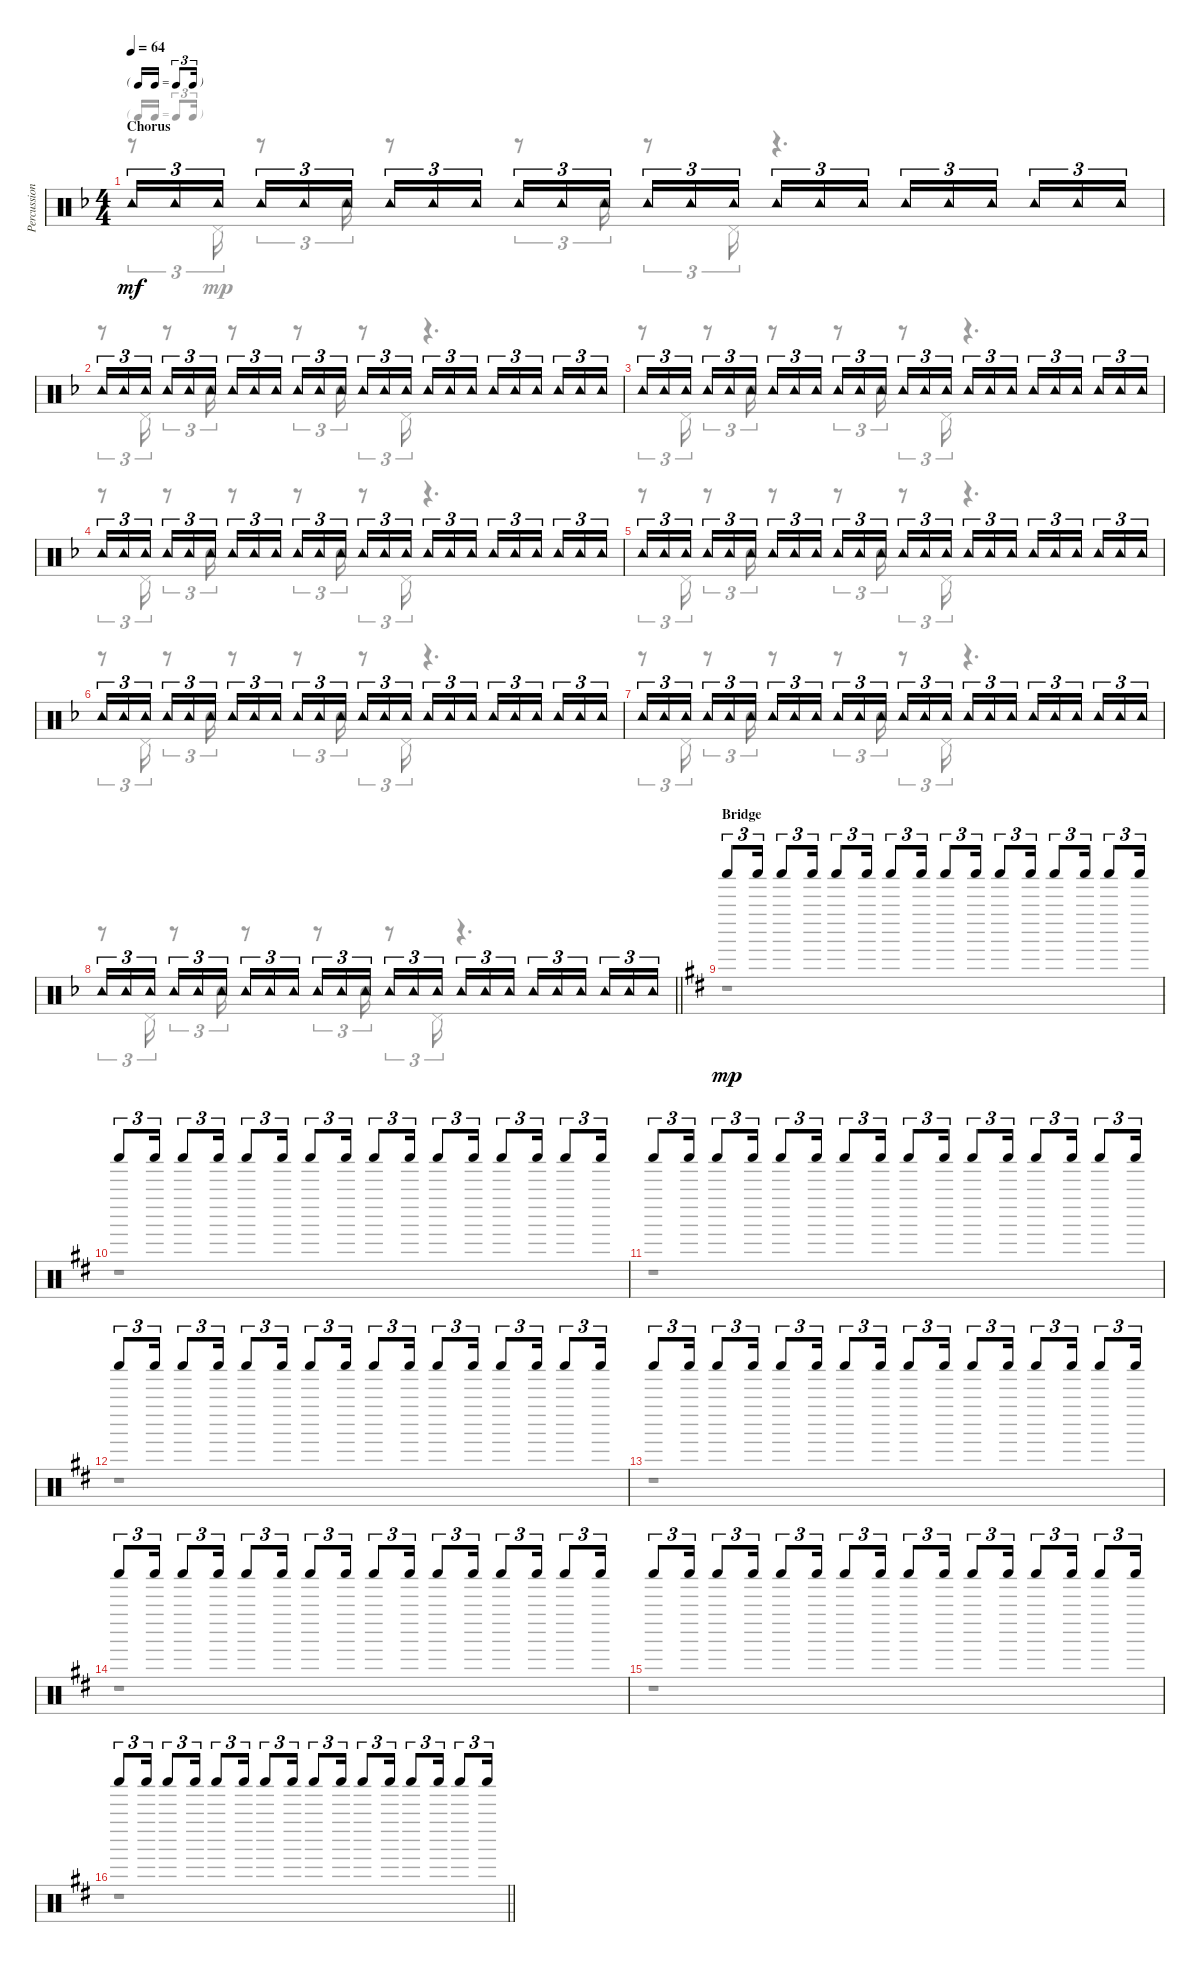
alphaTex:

\track ("Percussion" "Percussion") {instrument percussion}
\staff {score}
\articulation defaults
\voice
\ts (4 4)
\tf triplet16th
\section ("" "Chorus")
\tempo 64
\clef neutral
\ks f "Tambourine (hit)".16{tu (3 2) dy mf} "Tambourine (hit)".16{tu (3 2)} "Tambourine (hit)".16{tu (3 2) beam splitsecondary} "Tambourine (hit)".16{tu (3 2)} "Tambourine (hit)".16{tu (3 2)} "Tambourine (hit)".16{tu (3 2)} "Tambourine (hit)".16{tu (3 2)} "Tambourine (hit)".16{tu (3 2)} "Tambourine (hit)".16{tu (3 2) beam splitsecondary} "Tambourine (hit)".16{tu (3 2)} "Tambourine (hit)".16{tu (3 2)} "Tambourine (hit)".16{tu (3 2)} "Tambourine (hit)".16{tu (3 2)} "Tambourine (hit)".16{tu (3 2)} "Tambourine (hit)".16{tu (3 2) beam splitsecondary} "Tambourine (hit)".16{tu (3 2)} "Tambourine (hit)".16{tu (3 2)} "Tambourine (hit)".16{tu (3 2)} "Tambourine (hit)".16{tu (3 2)} "Tambourine (hit)".16{tu (3 2)} "Tambourine (hit)".16{tu (3 2) beam splitsecondary} "Tambourine (hit)".16{tu (3 2)} "Tambourine (hit)".16{tu (3 2)} "Tambourine (hit)".16{tu (3 2)}
|
"Tambourine (hit)".16{tu (3 2)} "Tambourine (hit)".16{tu (3 2)} "Tambourine (hit)".16{tu (3 2) beam splitsecondary} "Tambourine (hit)".16{tu (3 2)} "Tambourine (hit)".16{tu (3 2)} "Tambourine (hit)".16{tu (3 2)} "Tambourine (hit)".16{tu (3 2)} "Tambourine (hit)".16{tu (3 2)} "Tambourine (hit)".16{tu (3 2) beam splitsecondary} "Tambourine (hit)".16{tu (3 2)} "Tambourine (hit)".16{tu (3 2)} "Tambourine (hit)".16{tu (3 2)} "Tambourine (hit)".16{tu (3 2)} "Tambourine (hit)".16{tu (3 2)} "Tambourine (hit)".16{tu (3 2) beam splitsecondary} "Tambourine (hit)".16{tu (3 2)} "Tambourine (hit)".16{tu (3 2)} "Tambourine (hit)".16{tu (3 2)} "Tambourine (hit)".16{tu (3 2)} "Tambourine (hit)".16{tu (3 2)} "Tambourine (hit)".16{tu (3 2) beam splitsecondary} "Tambourine (hit)".16{tu (3 2)} "Tambourine (hit)".16{tu (3 2)} "Tambourine (hit)".16{tu (3 2)} |
"Tambourine (hit)".16{tu (3 2)} "Tambourine (hit)".16{tu (3 2)} "Tambourine (hit)".16{tu (3 2) beam splitsecondary} "Tambourine (hit)".16{tu (3 2)} "Tambourine (hit)".16{tu (3 2)} "Tambourine (hit)".16{tu (3 2)} "Tambourine (hit)".16{tu (3 2)} "Tambourine (hit)".16{tu (3 2)} "Tambourine (hit)".16{tu (3 2) beam splitsecondary} "Tambourine (hit)".16{tu (3 2)} "Tambourine (hit)".16{tu (3 2)} "Tambourine (hit)".16{tu (3 2)} "Tambourine (hit)".16{tu (3 2)} "Tambourine (hit)".16{tu (3 2)} "Tambourine (hit)".16{tu (3 2) beam splitsecondary} "Tambourine (hit)".16{tu (3 2)} "Tambourine (hit)".16{tu (3 2)} "Tambourine (hit)".16{tu (3 2)} "Tambourine (hit)".16{tu (3 2)} "Tambourine (hit)".16{tu (3 2)} "Tambourine (hit)".16{tu (3 2) beam splitsecondary} "Tambourine (hit)".16{tu (3 2)} "Tambourine (hit)".16{tu (3 2)} "Tambourine (hit)".16{tu (3 2)} |
"Tambourine (hit)".16{tu (3 2)} "Tambourine (hit)".16{tu (3 2)} "Tambourine (hit)".16{tu (3 2) beam splitsecondary} "Tambourine (hit)".16{tu (3 2)} "Tambourine (hit)".16{tu (3 2)} "Tambourine (hit)".16{tu (3 2)} "Tambourine (hit)".16{tu (3 2)} "Tambourine (hit)".16{tu (3 2)} "Tambourine (hit)".16{tu (3 2) beam splitsecondary} "Tambourine (hit)".16{tu (3 2)} "Tambourine (hit)".16{tu (3 2)} "Tambourine (hit)".16{tu (3 2)} "Tambourine (hit)".16{tu (3 2)} "Tambourine (hit)".16{tu (3 2)} "Tambourine (hit)".16{tu (3 2) beam splitsecondary} "Tambourine (hit)".16{tu (3 2)} "Tambourine (hit)".16{tu (3 2)} "Tambourine (hit)".16{tu (3 2)} "Tambourine (hit)".16{tu (3 2)} "Tambourine (hit)".16{tu (3 2)} "Tambourine (hit)".16{tu (3 2) beam splitsecondary} "Tambourine (hit)".16{tu (3 2)} "Tambourine (hit)".16{tu (3 2)} "Tambourine (hit)".16{tu (3 2)} |
"Tambourine (hit)".16{tu (3 2)} "Tambourine (hit)".16{tu (3 2)} "Tambourine (hit)".16{tu (3 2) beam splitsecondary} "Tambourine (hit)".16{tu (3 2)} "Tambourine (hit)".16{tu (3 2)} "Tambourine (hit)".16{tu (3 2)} "Tambourine (hit)".16{tu (3 2)} "Tambourine (hit)".16{tu (3 2)} "Tambourine (hit)".16{tu (3 2) beam splitsecondary} "Tambourine (hit)".16{tu (3 2)} "Tambourine (hit)".16{tu (3 2)} "Tambourine (hit)".16{tu (3 2)} "Tambourine (hit)".16{tu (3 2)} "Tambourine (hit)".16{tu (3 2)} "Tambourine (hit)".16{tu (3 2) beam splitsecondary} "Tambourine (hit)".16{tu (3 2)} "Tambourine (hit)".16{tu (3 2)} "Tambourine (hit)".16{tu (3 2)} "Tambourine (hit)".16{tu (3 2)} "Tambourine (hit)".16{tu (3 2)} "Tambourine (hit)".16{tu (3 2) beam splitsecondary} "Tambourine (hit)".16{tu (3 2)} "Tambourine (hit)".16{tu (3 2)} "Tambourine (hit)".16{tu (3 2)} |
"Tambourine (hit)".16{tu (3 2)} "Tambourine (hit)".16{tu (3 2)} "Tambourine (hit)".16{tu (3 2) beam splitsecondary} "Tambourine (hit)".16{tu (3 2)} "Tambourine (hit)".16{tu (3 2)} "Tambourine (hit)".16{tu (3 2)} "Tambourine (hit)".16{tu (3 2)} "Tambourine (hit)".16{tu (3 2)} "Tambourine (hit)".16{tu (3 2) beam splitsecondary} "Tambourine (hit)".16{tu (3 2)} "Tambourine (hit)".16{tu (3 2)} "Tambourine (hit)".16{tu (3 2)} "Tambourine (hit)".16{tu (3 2)} "Tambourine (hit)".16{tu (3 2)} "Tambourine (hit)".16{tu (3 2) beam splitsecondary} "Tambourine (hit)".16{tu (3 2)} "Tambourine (hit)".16{tu (3 2)} "Tambourine (hit)".16{tu (3 2)} "Tambourine (hit)".16{tu (3 2)} "Tambourine (hit)".16{tu (3 2)} "Tambourine (hit)".16{tu (3 2) beam splitsecondary} "Tambourine (hit)".16{tu (3 2)} "Tambourine (hit)".16{tu (3 2)} "Tambourine (hit)".16{tu (3 2)} |
"Tambourine (hit)".16{tu (3 2)} "Tambourine (hit)".16{tu (3 2)} "Tambourine (hit)".16{tu (3 2) beam splitsecondary} "Tambourine (hit)".16{tu (3 2)} "Tambourine (hit)".16{tu (3 2)} "Tambourine (hit)".16{tu (3 2)} "Tambourine (hit)".16{tu (3 2)} "Tambourine (hit)".16{tu (3 2)} "Tambourine (hit)".16{tu (3 2) beam splitsecondary} "Tambourine (hit)".16{tu (3 2)} "Tambourine (hit)".16{tu (3 2)} "Tambourine (hit)".16{tu (3 2)} "Tambourine (hit)".16{tu (3 2)} "Tambourine (hit)".16{tu (3 2)} "Tambourine (hit)".16{tu (3 2) beam splitsecondary} "Tambourine (hit)".16{tu (3 2)} "Tambourine (hit)".16{tu (3 2)} "Tambourine (hit)".16{tu (3 2)} "Tambourine (hit)".16{tu (3 2)} "Tambourine (hit)".16{tu (3 2)} "Tambourine (hit)".16{tu (3 2) beam splitsecondary} "Tambourine (hit)".16{tu (3 2)} "Tambourine (hit)".16{tu (3 2)} "Tambourine (hit)".16{tu (3 2)} |
\barLineRight lightlight "Tambourine (hit)".16{tu (3 2)} "Tambourine (hit)".16{tu (3 2)} "Tambourine (hit)".16{tu (3 2) beam splitsecondary} "Tambourine (hit)".16{tu (3 2)} "Tambourine (hit)".16{tu (3 2)} "Tambourine (hit)".16{tu (3 2)} "Tambourine (hit)".16{tu (3 2)} "Tambourine (hit)".16{tu (3 2)} "Tambourine (hit)".16{tu (3 2) beam splitsecondary} "Tambourine (hit)".16{tu (3 2)} "Tambourine (hit)".16{tu (3 2)} "Tambourine (hit)".16{tu (3 2)} "Tambourine (hit)".16{tu (3 2)} "Tambourine (hit)".16{tu (3 2)} "Tambourine (hit)".16{tu (3 2) beam splitsecondary} "Tambourine (hit)".16{tu (3 2)} "Tambourine (hit)".16{tu (3 2)} "Tambourine (hit)".16{tu (3 2)} "Tambourine (hit)".16{tu (3 2)} "Tambourine (hit)".16{tu (3 2)} "Tambourine (hit)".16{tu (3 2) beam splitsecondary} "Tambourine (hit)".16{tu (3 2)} "Tambourine (hit)".16{tu (3 2)} "Tambourine (hit)".16{tu (3 2)}
|
\section ("" "Bridge")
\ks d "Shaker (hit)".8{tu (3 2) dy mp} "Shaker (hit)".16{tu (3 2)} "Shaker (hit)".8{tu (3 2)} "Shaker (hit)".16{tu (3 2)} "Shaker (hit)".8{tu (3 2)} "Shaker (hit)".16{tu (3 2)} "Shaker (hit)".8{tu (3 2)} "Shaker (hit)".16{tu (3 2)} "Shaker (hit)".8{tu (3 2)} "Shaker (hit)".16{tu (3 2)} "Shaker (hit)".8{tu (3 2)} "Shaker (hit)".16{tu (3 2)} "Shaker (hit)".8{tu (3 2)} "Shaker (hit)".16{tu (3 2)} "Shaker (hit)".8{tu (3 2)} "Shaker (hit)".16{tu (3 2)}
|
"Shaker (hit)".8{tu (3 2)} "Shaker (hit)".16{tu (3 2)} "Shaker (hit)".8{tu (3 2)} "Shaker (hit)".16{tu (3 2)} "Shaker (hit)".8{tu (3 2)} "Shaker (hit)".16{tu (3 2)} "Shaker (hit)".8{tu (3 2)} "Shaker (hit)".16{tu (3 2)} "Shaker (hit)".8{tu (3 2)} "Shaker (hit)".16{tu (3 2)} "Shaker (hit)".8{tu (3 2)} "Shaker (hit)".16{tu (3 2)} "Shaker (hit)".8{tu (3 2)} "Shaker (hit)".16{tu (3 2)} "Shaker (hit)".8{tu (3 2)} "Shaker (hit)".16{tu (3 2)} |
"Shaker (hit)".8{tu (3 2)} "Shaker (hit)".16{tu (3 2)} "Shaker (hit)".8{tu (3 2)} "Shaker (hit)".16{tu (3 2)} "Shaker (hit)".8{tu (3 2)} "Shaker (hit)".16{tu (3 2)} "Shaker (hit)".8{tu (3 2)} "Shaker (hit)".16{tu (3 2)} "Shaker (hit)".8{tu (3 2)} "Shaker (hit)".16{tu (3 2)} "Shaker (hit)".8{tu (3 2)} "Shaker (hit)".16{tu (3 2)} "Shaker (hit)".8{tu (3 2)} "Shaker (hit)".16{tu (3 2)} "Shaker (hit)".8{tu (3 2)} "Shaker (hit)".16{tu (3 2)} |
"Shaker (hit)".8{tu (3 2)} "Shaker (hit)".16{tu (3 2)} "Shaker (hit)".8{tu (3 2)} "Shaker (hit)".16{tu (3 2)} "Shaker (hit)".8{tu (3 2)} "Shaker (hit)".16{tu (3 2)} "Shaker (hit)".8{tu (3 2)} "Shaker (hit)".16{tu (3 2)} "Shaker (hit)".8{tu (3 2)} "Shaker (hit)".16{tu (3 2)} "Shaker (hit)".8{tu (3 2)} "Shaker (hit)".16{tu (3 2)} "Shaker (hit)".8{tu (3 2)} "Shaker (hit)".16{tu (3 2)} "Shaker (hit)".8{tu (3 2)} "Shaker (hit)".16{tu (3 2)} |
"Shaker (hit)".8{tu (3 2)} "Shaker (hit)".16{tu (3 2)} "Shaker (hit)".8{tu (3 2)} "Shaker (hit)".16{tu (3 2)} "Shaker (hit)".8{tu (3 2)} "Shaker (hit)".16{tu (3 2)} "Shaker (hit)".8{tu (3 2)} "Shaker (hit)".16{tu (3 2)} "Shaker (hit)".8{tu (3 2)} "Shaker (hit)".16{tu (3 2)} "Shaker (hit)".8{tu (3 2)} "Shaker (hit)".16{tu (3 2)} "Shaker (hit)".8{tu (3 2)} "Shaker (hit)".16{tu (3 2)} "Shaker (hit)".8{tu (3 2)} "Shaker (hit)".16{tu (3 2)} |
"Shaker (hit)".8{tu (3 2)} "Shaker (hit)".16{tu (3 2)} "Shaker (hit)".8{tu (3 2)} "Shaker (hit)".16{tu (3 2)} "Shaker (hit)".8{tu (3 2)} "Shaker (hit)".16{tu (3 2)} "Shaker (hit)".8{tu (3 2)} "Shaker (hit)".16{tu (3 2)} "Shaker (hit)".8{tu (3 2)} "Shaker (hit)".16{tu (3 2)} "Shaker (hit)".8{tu (3 2)} "Shaker (hit)".16{tu (3 2)} "Shaker (hit)".8{tu (3 2)} "Shaker (hit)".16{tu (3 2)} "Shaker (hit)".8{tu (3 2)} "Shaker (hit)".16{tu (3 2)} |
"Shaker (hit)".8{tu (3 2)} "Shaker (hit)".16{tu (3 2)} "Shaker (hit)".8{tu (3 2)} "Shaker (hit)".16{tu (3 2)} "Shaker (hit)".8{tu (3 2)} "Shaker (hit)".16{tu (3 2)} "Shaker (hit)".8{tu (3 2)} "Shaker (hit)".16{tu (3 2)} "Shaker (hit)".8{tu (3 2)} "Shaker (hit)".16{tu (3 2)} "Shaker (hit)".8{tu (3 2)} "Shaker (hit)".16{tu (3 2)} "Shaker (hit)".8{tu (3 2)} "Shaker (hit)".16{tu (3 2)} "Shaker (hit)".8{tu (3 2)} "Shaker (hit)".16{tu (3 2)} |
\barLineRight lightlight "Shaker (hit)".8{tu (3 2)} "Shaker (hit)".16{tu (3 2)} "Shaker (hit)".8{tu (3 2)} "Shaker (hit)".16{tu (3 2)} "Shaker (hit)".8{tu (3 2)} "Shaker (hit)".16{tu (3 2)} "Shaker (hit)".8{tu (3 2)} "Shaker (hit)".16{tu (3 2)} "Shaker (hit)".8{tu (3 2)} "Shaker (hit)".16{tu (3 2)} "Shaker (hit)".8{tu (3 2)} "Shaker (hit)".16{tu (3 2)} "Shaker (hit)".8{tu (3 2)} "Shaker (hit)".16{tu (3 2)} "Shaker (hit)".8{tu (3 2)} "Shaker (hit)".16{tu (3 2)}
\voice
\clef neutral
\ottava regular
\simile none
\ks f
r.8{tu (3 2) dy mp} "Pedal Hi-Hat (hit)".16{tu (3 2)} r.8{tu (3 2)} "Electric Snare (hit)".16{tu (3 2)} r.8 r.8{tu (3 2)} "Electric Snare (hit)".16{tu (3 2)} r.8{tu (3 2)} "Pedal Hi-Hat (hit)".16{tu (3 2)} r.4{d} |
r.8{tu (3 2)} "Pedal Hi-Hat (hit)".16{tu (3 2)} r.8{tu (3 2)} "Electric Snare (hit)".16{tu (3 2)} r.8 r.8{tu (3 2)} "Electric Snare (hit)".16{tu (3 2)} r.8{tu (3 2)} "Pedal Hi-Hat (hit)".16{tu (3 2)} r.4{d} |
r.8{tu (3 2)} "Pedal Hi-Hat (hit)".16{tu (3 2)} r.8{tu (3 2)} "Electric Snare (hit)".16{tu (3 2)} r.8 r.8{tu (3 2)} "Electric Snare (hit)".16{tu (3 2)} r.8{tu (3 2)} "Pedal Hi-Hat (hit)".16{tu (3 2)} r.4{d} |
r.8{tu (3 2)} "Pedal Hi-Hat (hit)".16{tu (3 2)} r.8{tu (3 2)} "Electric Snare (hit)".16{tu (3 2)} r.8 r.8{tu (3 2)} "Electric Snare (hit)".16{tu (3 2)} r.8{tu (3 2)} "Pedal Hi-Hat (hit)".16{tu (3 2)} r.4{d} |
r.8{tu (3 2)} "Pedal Hi-Hat (hit)".16{tu (3 2)} r.8{tu (3 2)} "Electric Snare (hit)".16{tu (3 2)} r.8 r.8{tu (3 2)} "Electric Snare (hit)".16{tu (3 2)} r.8{tu (3 2)} "Pedal Hi-Hat (hit)".16{tu (3 2)} r.4{d} |
r.8{tu (3 2)} "Pedal Hi-Hat (hit)".16{tu (3 2)} r.8{tu (3 2)} "Electric Snare (hit)".16{tu (3 2)} r.8 r.8{tu (3 2)} "Electric Snare (hit)".16{tu (3 2)} r.8{tu (3 2)} "Pedal Hi-Hat (hit)".16{tu (3 2)} r.4{d} |
r.8{tu (3 2)} "Pedal Hi-Hat (hit)".16{tu (3 2)} r.8{tu (3 2)} "Electric Snare (hit)".16{tu (3 2)} r.8 r.8{tu (3 2)} "Electric Snare (hit)".16{tu (3 2)} r.8{tu (3 2)} "Pedal Hi-Hat (hit)".16{tu (3 2)} r.4{d} |
\barLineRight lightlight
r.8{tu (3 2)} "Pedal Hi-Hat (hit)".16{tu (3 2)} r.8{tu (3 2)} "Electric Snare (hit)".16{tu (3 2)} r.8 r.8{tu (3 2)} "Electric Snare (hit)".16{tu (3 2)} r.8{tu (3 2)} "Pedal Hi-Hat (hit)".16{tu (3 2)} r.4{d} |
\ks d
r.1 |
r.1 |
r.1 |
r.1 |
r.1 |
r.1 |
r.1 |
\barLineRight lightlight
r.1
